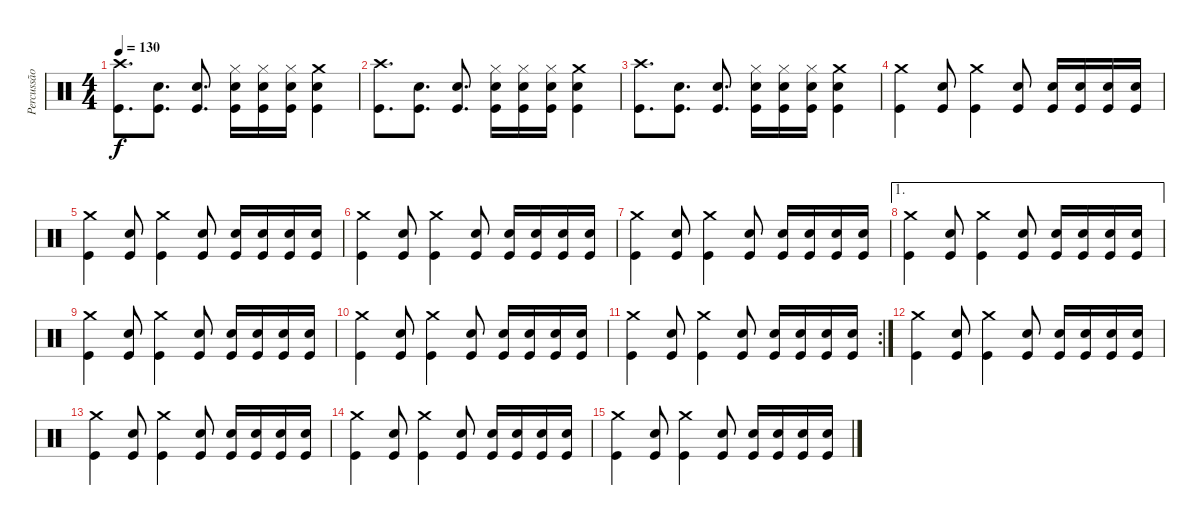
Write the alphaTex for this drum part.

\track ("Percussão" "Percussão") {instrument percussion}
\staff {score}
\articulation defaults
\ts (4 4)
\tempo 130
\clef neutral
\ks c
("Crash high (hit)" "Kick (hit)").8{d dy f} ("Kick (hit)" "Snare (hit) 2").8{d} ("Kick (hit)" "Snare (hit) 2").8{d} ("Kick (hit)" "Snare (hit) 2" "Hi-Hat (closed)").16 ("Kick (hit)" "Snare (hit) 2" "Hi-Hat (closed)").16 ("Kick (hit)" "Snare (hit) 2" "Hi-Hat (closed)").16 ("Crash medium (hit)" "Kick (hit)" "Snare (hit) 2").4 |
("Crash high (hit)" "Kick (hit)").8{d} ("Kick (hit)" "Snare (hit) 2").8{d} ("Kick (hit)" "Snare (hit) 2").8{d} ("Kick (hit)" "Snare (hit) 2" "Hi-Hat (closed)").16 ("Kick (hit)" "Snare (hit) 2" "Hi-Hat (closed)").16 ("Kick (hit)" "Snare (hit) 2" "Hi-Hat (closed)").16 ("Crash medium (hit)" "Kick (hit)" "Snare (hit) 2").4 |
("Crash high (hit)" "Kick (hit)").8{d} ("Kick (hit)" "Snare (hit) 2").8{d} ("Kick (hit)" "Snare (hit) 2").8{d} ("Kick (hit)" "Snare (hit) 2" "Hi-Hat (closed)").16 ("Kick (hit)" "Snare (hit) 2" "Hi-Hat (closed)").16 ("Kick (hit)" "Snare (hit) 2" "Hi-Hat (closed)").16 ("Crash medium (hit)" "Kick (hit)" "Snare (hit) 2").4 |
("Crash medium (hit)" "Kick (hit)").4 ("Kick (hit)" "Snare (hit) 2").8 ("Crash medium (hit)" "Kick (hit)").4 ("Kick (hit)" "Snare (hit) 2").8 ("Kick (hit)" "Snare (hit) 2").16 ("Kick (hit)" "Snare (hit) 2").16 ("Kick (hit)" "Snare (hit) 2").16 ("Kick (hit)" "Snare (hit) 2").16 |
("Crash medium (hit)" "Kick (hit)").4 ("Kick (hit)" "Snare (hit) 2").8 ("Crash medium (hit)" "Kick (hit)").4 ("Kick (hit)" "Snare (hit) 2").8 ("Kick (hit)" "Snare (hit) 2").16 ("Kick (hit)" "Snare (hit) 2").16 ("Kick (hit)" "Snare (hit) 2").16 ("Kick (hit)" "Snare (hit) 2").16 |
("Crash medium (hit)" "Kick (hit)").4 ("Kick (hit)" "Snare (hit) 2").8 ("Crash medium (hit)" "Kick (hit)").4 ("Kick (hit)" "Snare (hit) 2").8 ("Kick (hit)" "Snare (hit) 2").16 ("Kick (hit)" "Snare (hit) 2").16 ("Kick (hit)" "Snare (hit) 2").16 ("Kick (hit)" "Snare (hit) 2").16 |
("Crash medium (hit)" "Kick (hit)").4 ("Kick (hit)" "Snare (hit) 2").8 ("Crash medium (hit)" "Kick (hit)").4 ("Kick (hit)" "Snare (hit) 2").8 ("Kick (hit)" "Snare (hit) 2").16 ("Kick (hit)" "Snare (hit) 2").16 ("Kick (hit)" "Snare (hit) 2").16 ("Kick (hit)" "Snare (hit) 2").16 |
\ae 1
("Crash medium (hit)" "Kick (hit)").4 ("Kick (hit)" "Snare (hit) 2").8 ("Crash medium (hit)" "Kick (hit)").4 ("Kick (hit)" "Snare (hit) 2").8 ("Kick (hit)" "Snare (hit) 2").16 ("Kick (hit)" "Snare (hit) 2").16 ("Kick (hit)" "Snare (hit) 2").16 ("Kick (hit)" "Snare (hit) 2").16 |
("Crash medium (hit)" "Kick (hit)").4 ("Kick (hit)" "Snare (hit) 2").8 ("Crash medium (hit)" "Kick (hit)").4 ("Kick (hit)" "Snare (hit) 2").8 ("Kick (hit)" "Snare (hit) 2").16 ("Kick (hit)" "Snare (hit) 2").16 ("Kick (hit)" "Snare (hit) 2").16 ("Kick (hit)" "Snare (hit) 2").16 |
("Crash medium (hit)" "Kick (hit)").4 ("Kick (hit)" "Snare (hit) 2").8 ("Crash medium (hit)" "Kick (hit)").4 ("Kick (hit)" "Snare (hit) 2").8 ("Kick (hit)" "Snare (hit) 2").16 ("Kick (hit)" "Snare (hit) 2").16 ("Kick (hit)" "Snare (hit) 2").16 ("Kick (hit)" "Snare (hit) 2").16 |
\rc 2
("Crash medium (hit)" "Kick (hit)").4 ("Kick (hit)" "Snare (hit) 2").8 ("Crash medium (hit)" "Kick (hit)").4 ("Kick (hit)" "Snare (hit) 2").8 ("Kick (hit)" "Snare (hit) 2").16 ("Kick (hit)" "Snare (hit) 2").16 ("Kick (hit)" "Snare (hit) 2").16 ("Kick (hit)" "Snare (hit) 2").16 |
("Crash medium (hit)" "Kick (hit)").4 ("Kick (hit)" "Snare (hit) 2").8 ("Crash medium (hit)" "Kick (hit)").4 ("Kick (hit)" "Snare (hit) 2").8 ("Kick (hit)" "Snare (hit) 2").16 ("Kick (hit)" "Snare (hit) 2").16 ("Kick (hit)" "Snare (hit) 2").16 ("Kick (hit)" "Snare (hit) 2").16 |
("Crash medium (hit)" "Kick (hit)").4 ("Kick (hit)" "Snare (hit) 2").8 ("Crash medium (hit)" "Kick (hit)").4 ("Kick (hit)" "Snare (hit) 2").8 ("Kick (hit)" "Snare (hit) 2").16 ("Kick (hit)" "Snare (hit) 2").16 ("Kick (hit)" "Snare (hit) 2").16 ("Kick (hit)" "Snare (hit) 2").16 |
("Crash medium (hit)" "Kick (hit)").4 ("Kick (hit)" "Snare (hit) 2").8 ("Crash medium (hit)" "Kick (hit)").4 ("Kick (hit)" "Snare (hit) 2").8 ("Kick (hit)" "Snare (hit) 2").16 ("Kick (hit)" "Snare (hit) 2").16 ("Kick (hit)" "Snare (hit) 2").16 ("Kick (hit)" "Snare (hit) 2").16 |
("Crash medium (hit)" "Kick (hit)").4 ("Kick (hit)" "Snare (hit) 2").8 ("Crash medium (hit)" "Kick (hit)").4 ("Kick (hit)" "Snare (hit) 2").8 ("Kick (hit)" "Snare (hit) 2").16 ("Kick (hit)" "Snare (hit) 2").16 ("Kick (hit)" "Snare (hit) 2").16 ("Kick (hit)" "Snare (hit) 2").16
